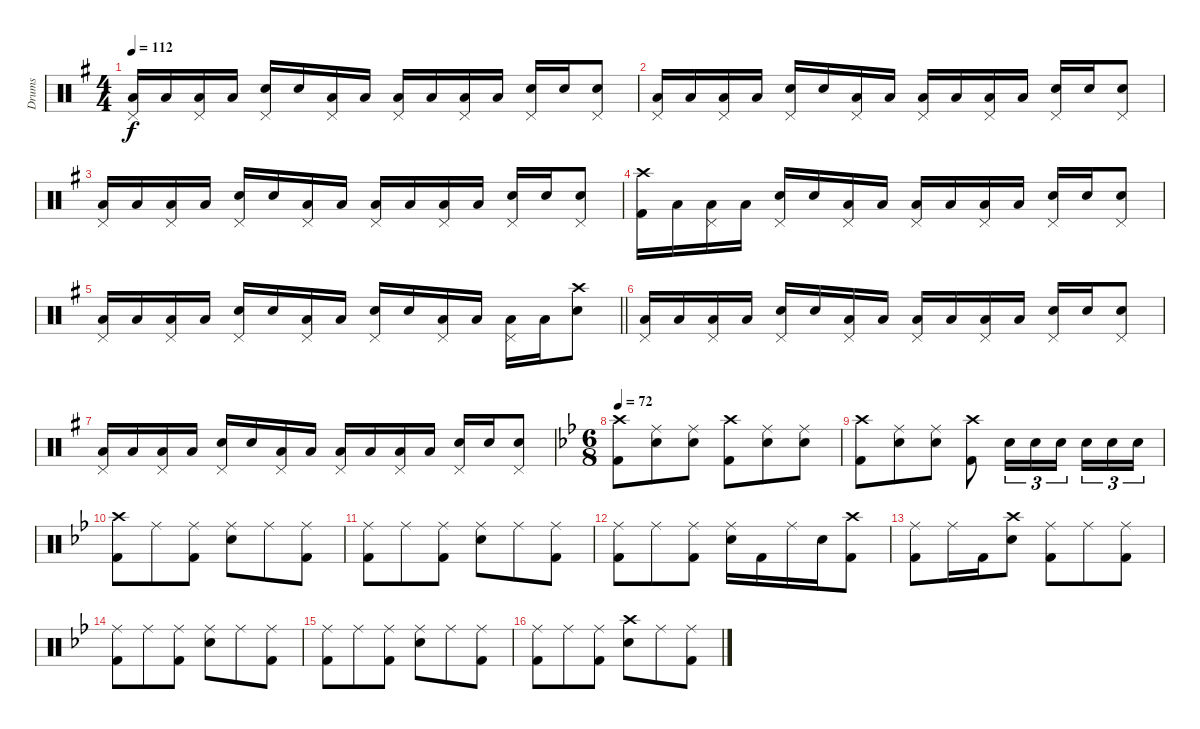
\track ("Drums" "Drums") {instrument percussion}
\staff {score}
\articulation defaults
\ts (4 4)
\tempo 112
\clef neutral
\ks g
("Pedal Hi-Hat (hit)" "Low Floor Tom (hit)").16{dy f} "Low Floor Tom (hit)".16 ("Pedal Hi-Hat (hit)" "Low Floor Tom (hit)").16 "Low Floor Tom (hit)".16 ("Pedal Hi-Hat (hit)" "Electric Snare (hit)").16 "Electric Snare (hit)".16 ("Pedal Hi-Hat (hit)" "Low Floor Tom (hit)").16 "Low Floor Tom (hit)".16 ("Pedal Hi-Hat (hit)" "Low Floor Tom (hit)").16 "Low Floor Tom (hit)".16 ("Pedal Hi-Hat (hit)" "Low Floor Tom (hit)").16 "Low Floor Tom (hit)".16 ("Pedal Hi-Hat (hit)" "Electric Snare (hit)").16 "Electric Snare (hit)".16 ("Pedal Hi-Hat (hit)" "Electric Snare (hit)").8 |
("Pedal Hi-Hat (hit)" "Low Floor Tom (hit)").16 "Low Floor Tom (hit)".16 ("Pedal Hi-Hat (hit)" "Low Floor Tom (hit)").16 "Low Floor Tom (hit)".16 ("Pedal Hi-Hat (hit)" "Electric Snare (hit)").16 "Electric Snare (hit)".16 ("Pedal Hi-Hat (hit)" "Low Floor Tom (hit)").16 "Low Floor Tom (hit)".16 ("Pedal Hi-Hat (hit)" "Low Floor Tom (hit)").16 "Low Floor Tom (hit)".16 ("Pedal Hi-Hat (hit)" "Low Floor Tom (hit)").16 "Low Floor Tom (hit)".16 ("Pedal Hi-Hat (hit)" "Electric Snare (hit)").16 "Electric Snare (hit)".16 ("Pedal Hi-Hat (hit)" "Electric Snare (hit)").8 |
("Pedal Hi-Hat (hit)" "Low Floor Tom (hit)").16 "Low Floor Tom (hit)".16 ("Pedal Hi-Hat (hit)" "Low Floor Tom (hit)").16 "Low Floor Tom (hit)".16 ("Pedal Hi-Hat (hit)" "Electric Snare (hit)").16 "Electric Snare (hit)".16 ("Pedal Hi-Hat (hit)" "Low Floor Tom (hit)").16 "Low Floor Tom (hit)".16 ("Pedal Hi-Hat (hit)" "Low Floor Tom (hit)").16 "Low Floor Tom (hit)".16 ("Pedal Hi-Hat (hit)" "Low Floor Tom (hit)").16 "Low Floor Tom (hit)".16 ("Pedal Hi-Hat (hit)" "Electric Snare (hit)").16 "Electric Snare (hit)".16 ("Pedal Hi-Hat (hit)" "Electric Snare (hit)").8 |
("Crash high (hit)" "Kick (hit) 2").16 "Low Floor Tom (hit)".16 ("Pedal Hi-Hat (hit)" "Low Floor Tom (hit)").16 "Low Floor Tom (hit)".16 ("Pedal Hi-Hat (hit)" "Electric Snare (hit)").16 "Electric Snare (hit)".16 ("Pedal Hi-Hat (hit)" "Low Floor Tom (hit)").16 "Low Floor Tom (hit)".16 ("Pedal Hi-Hat (hit)" "Low Floor Tom (hit)").16 "Low Floor Tom (hit)".16 ("Pedal Hi-Hat (hit)" "Low Floor Tom (hit)").16 "Low Floor Tom (hit)".16 ("Pedal Hi-Hat (hit)" "Electric Snare (hit)").16 "Electric Snare (hit)".16 ("Pedal Hi-Hat (hit)" "Electric Snare (hit)").8 |
\barLineRight lightlight
("Pedal Hi-Hat (hit)" "Low Floor Tom (hit)").16 "Low Floor Tom (hit)".16 ("Pedal Hi-Hat (hit)" "Low Floor Tom (hit)").16 "Low Floor Tom (hit)".16 ("Pedal Hi-Hat (hit)" "Electric Snare (hit)").16 "Electric Snare (hit)".16 ("Pedal Hi-Hat (hit)" "Low Floor Tom (hit)").16 "Low Floor Tom (hit)".16 ("Pedal Hi-Hat (hit)" "Electric Snare (hit)").16 "Electric Snare (hit)".16 ("Pedal Hi-Hat (hit)" "Low Floor Tom (hit)").16 "Low Floor Tom (hit)".16 ("Pedal Hi-Hat (hit)" "Low Floor Tom (hit)").16 "Low Floor Tom (hit)".16 ("Crash high (hit)" "Electric Snare (hit)").8 |
("Pedal Hi-Hat (hit)" "Low Floor Tom (hit)").16 "Low Floor Tom (hit)".16 ("Pedal Hi-Hat (hit)" "Low Floor Tom (hit)").16 "Low Floor Tom (hit)".16 ("Pedal Hi-Hat (hit)" "Electric Snare (hit)").16 "Electric Snare (hit)".16 ("Pedal Hi-Hat (hit)" "Low Floor Tom (hit)").16 "Low Floor Tom (hit)".16 ("Pedal Hi-Hat (hit)" "Low Floor Tom (hit)").16 "Low Floor Tom (hit)".16 ("Pedal Hi-Hat (hit)" "Low Floor Tom (hit)").16 "Low Floor Tom (hit)".16 ("Pedal Hi-Hat (hit)" "Electric Snare (hit)").16 "Electric Snare (hit)".16 ("Pedal Hi-Hat (hit)" "Electric Snare (hit)").8 |
("Pedal Hi-Hat (hit)" "Low Floor Tom (hit)").16 "Low Floor Tom (hit)".16 ("Pedal Hi-Hat (hit)" "Low Floor Tom (hit)").16 "Low Floor Tom (hit)".16 ("Pedal Hi-Hat (hit)" "Electric Snare (hit)").16 "Electric Snare (hit)".16 ("Pedal Hi-Hat (hit)" "Low Floor Tom (hit)").16 "Low Floor Tom (hit)".16 ("Pedal Hi-Hat (hit)" "Low Floor Tom (hit)").16 "Low Floor Tom (hit)".16 ("Pedal Hi-Hat (hit)" "Low Floor Tom (hit)").16 "Low Floor Tom (hit)".16 ("Pedal Hi-Hat (hit)" "Electric Snare (hit)").16 "Electric Snare (hit)".16 ("Pedal Hi-Hat (hit)" "Electric Snare (hit)").8 |
\ts (6 8)
\tempo 72
\ks bb
("Crash high (hit)" "Kick (hit) 2").8 ("Ride (middle)" "Electric Snare (hit)").8 ("Ride (middle)" "Electric Snare (hit)").8 ("Crash high (hit)" "Kick (hit) 2").8 ("Ride (middle)" "Electric Snare (hit)").8 ("Ride (middle)" "Electric Snare (hit)").8 |
("Crash high (hit)" "Kick (hit) 2").8 ("Ride (middle)" "Electric Snare (hit)").8 ("Ride (middle)" "Electric Snare (hit)").8 ("Crash high (hit)" "Kick (hit) 2").8 "Electric Snare (hit)".16{tu (3 2)} "Electric Snare (hit)".16{tu (3 2)} "Electric Snare (hit)".16{tu (3 2) beam splitsecondary} "Electric Snare (hit)".16{tu (3 2)} "Electric Snare (hit)".16{tu (3 2)} "Electric Snare (hit)".16{tu (3 2)} |
("Crash high (hit)" "Kick (hit) 2").8 "Ride (middle)".8 ("Ride (middle)" "Kick (hit) 2").8 ("Ride (middle)" "Electric Snare (hit)").8 "Ride (middle)".8 ("Ride (middle)" "Kick (hit) 2").8 |
("Ride (middle)" "Kick (hit) 2").8 "Ride (middle)".8 ("Ride (middle)" "Kick (hit) 2").8 ("Ride (middle)" "Electric Snare (hit)").8 "Ride (middle)".8 ("Ride (middle)" "Kick (hit) 2").8 |
("Ride (middle)" "Kick (hit) 2").8 "Ride (middle)".8 ("Ride (middle)" "Kick (hit) 2").8 ("Ride (middle)" "Electric Snare (hit)").16 "Kick (hit) 2".16 "Ride (middle)".16 "Electric Snare (hit)".16 ("Crash high (hit)" "Kick (hit) 2").8 |
("Ride (middle)" "Kick (hit) 2").8 "Ride (middle)".16 "Kick (hit) 2".16 ("Crash high (hit)" "Electric Snare (hit)").8 ("Ride (middle)" "Kick (hit) 2").8 "Ride (middle)".8 ("Ride (middle)" "Kick (hit) 2").8 |
("Ride (middle)" "Kick (hit) 2").8 "Ride (middle)".8 ("Ride (middle)" "Kick (hit) 2").8 ("Ride (middle)" "Electric Snare (hit)").8 "Ride (middle)".8 ("Ride (middle)" "Kick (hit) 2").8 |
("Ride (middle)" "Kick (hit) 2").8 "Ride (middle)".8 ("Ride (middle)" "Kick (hit) 2").8 ("Ride (middle)" "Electric Snare (hit)").8 "Ride (middle)".8 ("Ride (middle)" "Kick (hit) 2").8 |
("Ride (middle)" "Kick (hit) 2").8 "Ride (middle)".8 ("Ride (middle)" "Kick (hit) 2").8 ("Crash high (hit)" "Electric Snare (hit)").8 "Ride (middle)".8 ("Ride (middle)" "Kick (hit) 2").8
